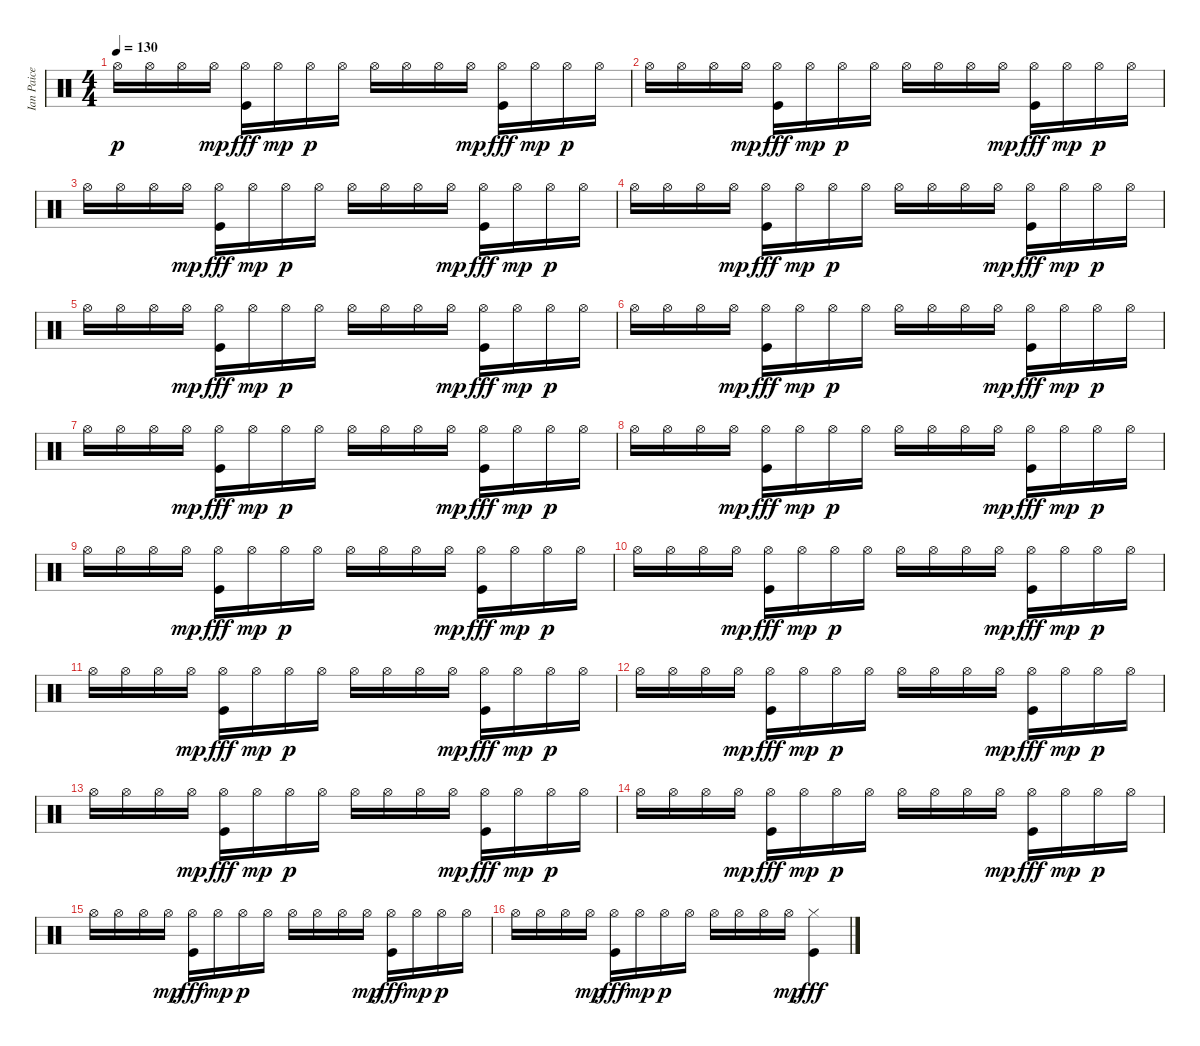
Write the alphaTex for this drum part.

\track ("Ian Paice - Drums" "Ian Paice ") {instrument percussion}
\staff {score}
\articulation defaults
\ts (4 4)
\tempo 130
\clef neutral
\ks c "Hi-Hat (open)".16{dy p} "Hi-Hat (open)".16 "Hi-Hat (open)".16 "Hi-Hat (open)".16{dy mp}
("Hi-Hat (open)" "Kick (hit)").16{dy fff} "Hi-Hat (open)".16{dy mp} "Hi-Hat (open)".16{dy p} "Hi-Hat (open)".16 "Hi-Hat (open)".16 "Hi-Hat (open)".16 "Hi-Hat (open)".16 "Hi-Hat (open)".16{dy mp} ("Hi-Hat (open)" "Kick (hit)").16{dy fff} "Hi-Hat (open)".16{dy mp} "Hi-Hat (open)".16{dy p} "Hi-Hat (open)".16 |
"Hi-Hat (open)".16 "Hi-Hat (open)".16 "Hi-Hat (open)".16 "Hi-Hat (open)".16{dy mp} ("Hi-Hat (open)" "Kick (hit)").16{dy fff} "Hi-Hat (open)".16{dy mp} "Hi-Hat (open)".16{dy p} "Hi-Hat (open)".16 "Hi-Hat (open)".16 "Hi-Hat (open)".16 "Hi-Hat (open)".16 "Hi-Hat (open)".16{dy mp} ("Hi-Hat (open)" "Kick (hit)").16{dy fff} "Hi-Hat (open)".16{dy mp} "Hi-Hat (open)".16{dy p} "Hi-Hat (open)".16 |
"Hi-Hat (open)".16 "Hi-Hat (open)".16 "Hi-Hat (open)".16 "Hi-Hat (open)".16{dy mp} ("Hi-Hat (open)" "Kick (hit)").16{dy fff} "Hi-Hat (open)".16{dy mp} "Hi-Hat (open)".16{dy p} "Hi-Hat (open)".16 "Hi-Hat (open)".16 "Hi-Hat (open)".16 "Hi-Hat (open)".16 "Hi-Hat (open)".16{dy mp} ("Hi-Hat (open)" "Kick (hit)").16{dy fff} "Hi-Hat (open)".16{dy mp} "Hi-Hat (open)".16{dy p} "Hi-Hat (open)".16 |
"Hi-Hat (open)".16 "Hi-Hat (open)".16 "Hi-Hat (open)".16 "Hi-Hat (open)".16{dy mp} ("Hi-Hat (open)" "Kick (hit)").16{dy fff} "Hi-Hat (open)".16{dy mp} "Hi-Hat (open)".16{dy p} "Hi-Hat (open)".16 "Hi-Hat (open)".16 "Hi-Hat (open)".16 "Hi-Hat (open)".16 "Hi-Hat (open)".16{dy mp} ("Hi-Hat (open)" "Kick (hit)").16{dy fff} "Hi-Hat (open)".16{dy mp} "Hi-Hat (open)".16{dy p} "Hi-Hat (open)".16 |
"Hi-Hat (open)".16 "Hi-Hat (open)".16 "Hi-Hat (open)".16 "Hi-Hat (open)".16{dy mp} ("Hi-Hat (open)" "Kick (hit)").16{dy fff} "Hi-Hat (open)".16{dy mp} "Hi-Hat (open)".16{dy p} "Hi-Hat (open)".16 "Hi-Hat (open)".16 "Hi-Hat (open)".16 "Hi-Hat (open)".16 "Hi-Hat (open)".16{dy mp} ("Hi-Hat (open)" "Kick (hit)").16{dy fff} "Hi-Hat (open)".16{dy mp} "Hi-Hat (open)".16{dy p} "Hi-Hat (open)".16 |
"Hi-Hat (open)".16 "Hi-Hat (open)".16 "Hi-Hat (open)".16 "Hi-Hat (open)".16{dy mp} ("Hi-Hat (open)" "Kick (hit)").16{dy fff} "Hi-Hat (open)".16{dy mp} "Hi-Hat (open)".16{dy p} "Hi-Hat (open)".16 "Hi-Hat (open)".16 "Hi-Hat (open)".16 "Hi-Hat (open)".16 "Hi-Hat (open)".16{dy mp} ("Hi-Hat (open)" "Kick (hit)").16{dy fff} "Hi-Hat (open)".16{dy mp} "Hi-Hat (open)".16{dy p} "Hi-Hat (open)".16 |
"Hi-Hat (open)".16 "Hi-Hat (open)".16 "Hi-Hat (open)".16 "Hi-Hat (open)".16{dy mp} ("Hi-Hat (open)" "Kick (hit)").16{dy fff} "Hi-Hat (open)".16{dy mp} "Hi-Hat (open)".16{dy p} "Hi-Hat (open)".16 "Hi-Hat (open)".16 "Hi-Hat (open)".16 "Hi-Hat (open)".16 "Hi-Hat (open)".16{dy mp} ("Hi-Hat (open)" "Kick (hit)").16{dy fff} "Hi-Hat (open)".16{dy mp} "Hi-Hat (open)".16{dy p} "Hi-Hat (open)".16 |
"Hi-Hat (open)".16 "Hi-Hat (open)".16 "Hi-Hat (open)".16 "Hi-Hat (open)".16{dy mp} ("Hi-Hat (open)" "Kick (hit)").16{dy fff} "Hi-Hat (open)".16{dy mp} "Hi-Hat (open)".16{dy p} "Hi-Hat (open)".16 "Hi-Hat (open)".16 "Hi-Hat (open)".16 "Hi-Hat (open)".16 "Hi-Hat (open)".16{dy mp} ("Hi-Hat (open)" "Kick (hit)").16{dy fff} "Hi-Hat (open)".16{dy mp} "Hi-Hat (open)".16{dy p} "Hi-Hat (open)".16 |
"Hi-Hat (open)".16 "Hi-Hat (open)".16 "Hi-Hat (open)".16 "Hi-Hat (open)".16{dy mp} ("Hi-Hat (open)" "Kick (hit)").16{dy fff} "Hi-Hat (open)".16{dy mp} "Hi-Hat (open)".16{dy p} "Hi-Hat (open)".16 "Hi-Hat (open)".16 "Hi-Hat (open)".16 "Hi-Hat (open)".16 "Hi-Hat (open)".16{dy mp} ("Hi-Hat (open)" "Kick (hit)").16{dy fff} "Hi-Hat (open)".16{dy mp} "Hi-Hat (open)".16{dy p} "Hi-Hat (open)".16 |
"Hi-Hat (open)".16 "Hi-Hat (open)".16 "Hi-Hat (open)".16 "Hi-Hat (open)".16{dy mp} ("Hi-Hat (open)" "Kick (hit)").16{dy fff} "Hi-Hat (open)".16{dy mp} "Hi-Hat (open)".16{dy p} "Hi-Hat (open)".16 "Hi-Hat (open)".16 "Hi-Hat (open)".16 "Hi-Hat (open)".16 "Hi-Hat (open)".16{dy mp} ("Hi-Hat (open)" "Kick (hit)").16{dy fff} "Hi-Hat (open)".16{dy mp} "Hi-Hat (open)".16{dy p} "Hi-Hat (open)".16 |
"Hi-Hat (open)".16 "Hi-Hat (open)".16 "Hi-Hat (open)".16 "Hi-Hat (open)".16{dy mp} ("Hi-Hat (open)" "Kick (hit)").16{dy fff} "Hi-Hat (open)".16{dy mp} "Hi-Hat (open)".16{dy p} "Hi-Hat (open)".16 "Hi-Hat (open)".16 "Hi-Hat (open)".16 "Hi-Hat (open)".16 "Hi-Hat (open)".16{dy mp} ("Hi-Hat (open)" "Kick (hit)").16{dy fff} "Hi-Hat (open)".16{dy mp} "Hi-Hat (open)".16{dy p} "Hi-Hat (open)".16 |
"Hi-Hat (open)".16 "Hi-Hat (open)".16 "Hi-Hat (open)".16 "Hi-Hat (open)".16{dy mp} ("Hi-Hat (open)" "Kick (hit)").16{dy fff} "Hi-Hat (open)".16{dy mp} "Hi-Hat (open)".16{dy p} "Hi-Hat (open)".16 "Hi-Hat (open)".16 "Hi-Hat (open)".16 "Hi-Hat (open)".16 "Hi-Hat (open)".16{dy mp} ("Hi-Hat (open)" "Kick (hit)").16{dy fff} "Hi-Hat (open)".16{dy mp} "Hi-Hat (open)".16{dy p} "Hi-Hat (open)".16 |
"Hi-Hat (open)".16 "Hi-Hat (open)".16 "Hi-Hat (open)".16 "Hi-Hat (open)".16{dy mp} ("Hi-Hat (open)" "Kick (hit)").16{dy fff} "Hi-Hat (open)".16{dy mp} "Hi-Hat (open)".16{dy p} "Hi-Hat (open)".16 "Hi-Hat (open)".16 "Hi-Hat (open)".16 "Hi-Hat (open)".16 "Hi-Hat (open)".16{dy mp} ("Hi-Hat (open)" "Kick (hit)").16{dy fff} "Hi-Hat (open)".16{dy mp} "Hi-Hat (open)".16{dy p} "Hi-Hat (open)".16 |
"Hi-Hat (open)".16 "Hi-Hat (open)".16 "Hi-Hat (open)".16 "Hi-Hat (open)".16{dy mp} ("Hi-Hat (open)" "Kick (hit)").16{dy fff} "Hi-Hat (open)".16{dy mp} "Hi-Hat (open)".16{dy p} "Hi-Hat (open)".16 "Hi-Hat (open)".16 "Hi-Hat (open)".16 "Hi-Hat (open)".16 "Hi-Hat (open)".16{dy mp} ("Hi-Hat (open)" "Kick (hit)").16{dy fff} "Hi-Hat (open)".16{dy mp} "Hi-Hat (open)".16{dy p} "Hi-Hat (open)".16 |
"Hi-Hat (open)".16 "Hi-Hat (open)".16 "Hi-Hat (open)".16 "Hi-Hat (open)".16{dy mp} ("Hi-Hat (open)" "Kick (hit)").16{dy fff} "Hi-Hat (open)".16{dy mp} "Hi-Hat (open)".16{dy p} "Hi-Hat (open)".16 "Hi-Hat (open)".16 "Hi-Hat (open)".16 "Hi-Hat (open)".16 "Hi-Hat (open)".16{dy mp} ("Hi-Hat (open)" "Kick (hit)").16{dy fff} "Hi-Hat (open)".16{dy mp} "Hi-Hat (open)".16{dy p} "Hi-Hat (open)".16 |
"Hi-Hat (open)".16 "Hi-Hat (open)".16 "Hi-Hat (open)".16 "Hi-Hat (open)".16{dy mp} ("Hi-Hat (open)" "Kick (hit)").16{dy fff} "Hi-Hat (open)".16{dy mp} "Hi-Hat (open)".16{dy p} "Hi-Hat (open)".16 "Hi-Hat (open)".16 "Hi-Hat (open)".16 "Hi-Hat (open)".16 "Hi-Hat (open)".16{dy mp} ("Hi-Hat (closed)" "Kick (hit)").4{dy fff}
